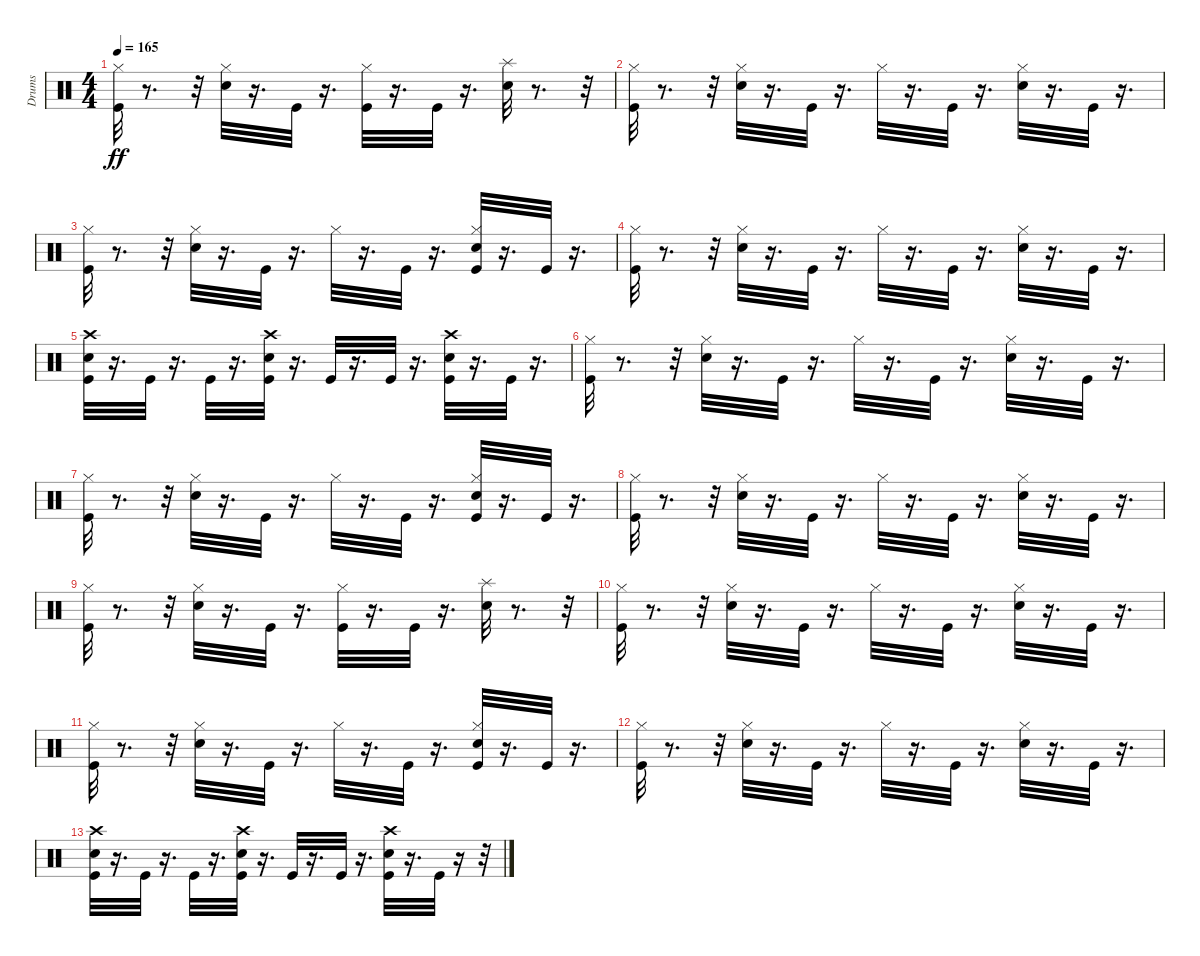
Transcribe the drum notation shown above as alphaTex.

\track ("Drums" "Drums") {instrument percussion}
\staff {score}
\articulation defaults
\ts (4 4)
\tempo 165
\clef neutral
\ks c
("Kick (hit)" "Hi-Hat (closed)").32{dy ff} r.8{d} r.32 ("Hi-Hat (closed)" "Electric Snare (hit)").32 r.16{d} "Kick (hit)".32 r.16{d} ("Kick (hit)" "Hi-Hat (closed)").32 r.16{d} "Kick (hit)".32 r.16{d} ("Splash (hit)" "Electric Snare (hit)").32 r.8{d} r.32 |
("Kick (hit)" "Hi-Hat (closed)").32 r.8{d} r.32 ("Hi-Hat (closed)" "Electric Snare (hit)").32 r.16{d} "Kick (hit)".32 r.16{d} "Hi-Hat (closed)".32 r.16{d} "Kick (hit)".32 r.16{d} ("Electric Snare (hit)" "Hi-Hat (closed)").32 r.16{d} "Kick (hit)".32 r.16{d} |
("Hi-Hat (closed)" "Kick (hit)").32 r.8{d} r.32 ("Hi-Hat (closed)" "Electric Snare (hit)").32 r.16{d} "Kick (hit)".32 r.16{d} "Hi-Hat (closed)".32 r.16{d} "Kick (hit)".32 r.16{d} ("Kick (hit)" "Hi-Hat (closed)" "Electric Snare (hit)").32 r.16{d} "Kick (hit)".32 r.16{d} |
("Kick (hit)" "Hi-Hat (closed)").32 r.8{d} r.32 ("Hi-Hat (closed)" "Electric Snare (hit)").32 r.16{d} "Kick (hit)".32 r.16{d} "Hi-Hat (closed)".32 r.16{d} "Kick (hit)".32 r.16{d} ("Electric Snare (hit)" "Hi-Hat (closed)").32 r.16{d} "Kick (hit)".32 r.16{d} |
("Kick (hit)" "Crash high (hit)" "Electric Snare (hit)").32 r.16{d} "Kick (hit)".32 r.16{d} "Kick (hit)".32 r.16{d} ("Crash high (hit)" "Electric Snare (hit)" "Kick (hit)").32 r.16{d} "Kick (hit)".32{volume 13} r.16{d} "Kick (hit)".32{volume 13} r.16{d} ("Crash high (hit)" "Electric Snare (hit)" "Kick (hit)").32{volume 13} r.16{d} "Kick (hit)".32{volume 13} r.16{d} |
("Kick (hit)" "Hi-Hat (closed)").32{volume 13} r.8{d} r.32 ("Electric Snare (hit)" "Hi-Hat (closed)").32{volume 12} r.16{d} "Kick (hit)".32{volume 12} r.16{d} "Hi-Hat (closed)".32{volume 12} r.16{d} "Kick (hit)".32{volume 12} r.16{d} ("Hi-Hat (closed)" "Electric Snare (hit)").32{volume 12} r.16{d} "Kick (hit)".32{volume 11} r.16{d} |
("Kick (hit)" "Hi-Hat (closed)").32{volume 11} r.8{d} r.32 ("Electric Snare (hit)" "Hi-Hat (closed)").32{volume 11} r.16{d} "Kick (hit)".32{volume 11} r.16{d} "Hi-Hat (closed)".32{volume 10} r.16{d} "Kick (hit)".32{volume 10} r.16{d} ("Electric Snare (hit)" "Hi-Hat (closed)" "Kick (hit)").32{volume 10} r.16{d} "Kick (hit)".32{volume 10} r.16{d} |
("Kick (hit)" "Hi-Hat (closed)").32{volume 10} r.8{d} r.32 ("Hi-Hat (closed)" "Electric Snare (hit)").32{volume 10} r.16{d} "Kick (hit)".32{volume 9} r.16{d} "Hi-Hat (closed)".32{volume 9} r.16{d} "Kick (hit)".32{volume 9} r.16{d} ("Electric Snare (hit)" "Hi-Hat (closed)").32{volume 9} r.16{d} "Kick (hit)".32{volume 9} r.16{d} |
("Kick (hit)" "Hi-Hat (closed)").32{volume 8} r.8{d} r.32 ("Hi-Hat (closed)" "Electric Snare (hit)").32{volume 8} r.16{d} "Kick (hit)".32{volume 8} r.16{d} ("Kick (hit)" "Hi-Hat (closed)").32{volume 8} r.16{d} "Kick (hit)".32{volume 8} r.16{d} ("Splash (hit)" "Electric Snare (hit)").32{volume 7} r.8{d} r.32 |
("Hi-Hat (closed)" "Kick (hit)").32{volume 7} r.8{d} r.32 ("Hi-Hat (closed)" "Electric Snare (hit)").32{volume 7} r.16{d} "Kick (hit)".32{volume 7} r.16{d} "Hi-Hat (closed)".32{volume 6} r.16{d} "Kick (hit)".32{volume 6} r.16{d} ("Electric Snare (hit)" "Hi-Hat (closed)").32{volume 6} r.16{d} "Kick (hit)".32{volume 6} r.16{d} |
("Kick (hit)" "Hi-Hat (closed)").32{volume 6} r.8{d} r.32 ("Hi-Hat (closed)" "Electric Snare (hit)").32{volume 5} r.16{d} "Kick (hit)".32{volume 5} r.16{d} "Hi-Hat (closed)".32{volume 5} r.16{d} "Kick (hit)".32{volume 5} r.16{d} ("Kick (hit)" "Hi-Hat (closed)" "Electric Snare (hit)").32{volume 5} r.16{d} "Kick (hit)".32{volume 4} r.16{d} |
("Kick (hit)" "Hi-Hat (closed)").32{volume 4} r.8{d} r.32 ("Hi-Hat (closed)" "Electric Snare (hit)").32{volume 4} r.16{d} "Kick (hit)".32{volume 4} r.16{d} "Hi-Hat (closed)".32{volume 4} r.16{d} "Kick (hit)".32{volume 4} r.16{d} ("Hi-Hat (closed)" "Electric Snare (hit)").32{volume 3} r.16{d} "Kick (hit)".32{volume 3} r.16{d} |
("Kick (hit)" "Crash high (hit)" "Electric Snare (hit)").32{volume 3} r.16{d} "Kick (hit)".32{volume 3} r.16{d} "Kick (hit)".32{volume 3} r.16{d} ("Crash high (hit)" "Electric Snare (hit)" "Kick (hit)").32{volume 2} r.16{d} "Kick (hit)".32{volume 2} r.16{d} "Kick (hit)".32{volume 2} r.16{d} ("Electric Snare (hit)" "Crash high (hit)" "Kick (hit)").32{volume 2} r.16{d} "Kick (hit)".32{volume 2} r.16 r.32
